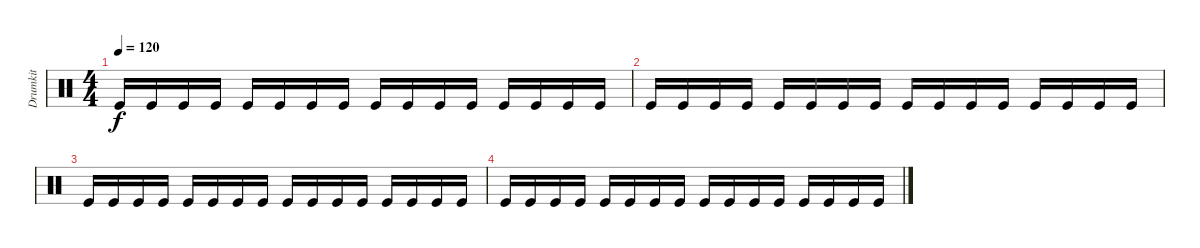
\track ("Drumkit" "Drumkit") {instrument percussion}
\staff {score}
\articulation defaults
\ts (4 4)
\tempo 120
\clef neutral
\ks c "Kick (hit)".16{dy f} "Kick (hit)".16 "Kick (hit)".16 "Kick (hit)".16 "Kick (hit)".16 "Kick (hit)".16 "Kick (hit)".16 "Kick (hit)".16 "Kick (hit)".16 "Kick (hit)".16 "Kick (hit)".16 "Kick (hit)".16 "Kick (hit)".16 "Kick (hit)".16 "Kick (hit)".16 "Kick (hit)".16
|
"Kick (hit)".16 "Kick (hit)".16 "Kick (hit)".16 "Kick (hit)".16 "Kick (hit)".16 "Kick (hit)".16 "Kick (hit)".16 "Kick (hit)".16 "Kick (hit)".16 "Kick (hit)".16 "Kick (hit)".16 "Kick (hit)".16 "Kick (hit)".16 "Kick (hit)".16 "Kick (hit)".16 "Kick (hit)".16 |
"Kick (hit)".16 "Kick (hit)".16 "Kick (hit)".16 "Kick (hit)".16 "Kick (hit)".16 "Kick (hit)".16 "Kick (hit)".16 "Kick (hit)".16 "Kick (hit)".16 "Kick (hit)".16 "Kick (hit)".16 "Kick (hit)".16 "Kick (hit)".16 "Kick (hit)".16 "Kick (hit)".16 "Kick (hit)".16 |
"Kick (hit)".16 "Kick (hit)".16 "Kick (hit)".16 "Kick (hit)".16 "Kick (hit)".16 "Kick (hit)".16 "Kick (hit)".16 "Kick (hit)".16 "Kick (hit)".16 "Kick (hit)".16 "Kick (hit)".16 "Kick (hit)".16 "Kick (hit)".16 "Kick (hit)".16 "Kick (hit)".16 "Kick (hit)".16
